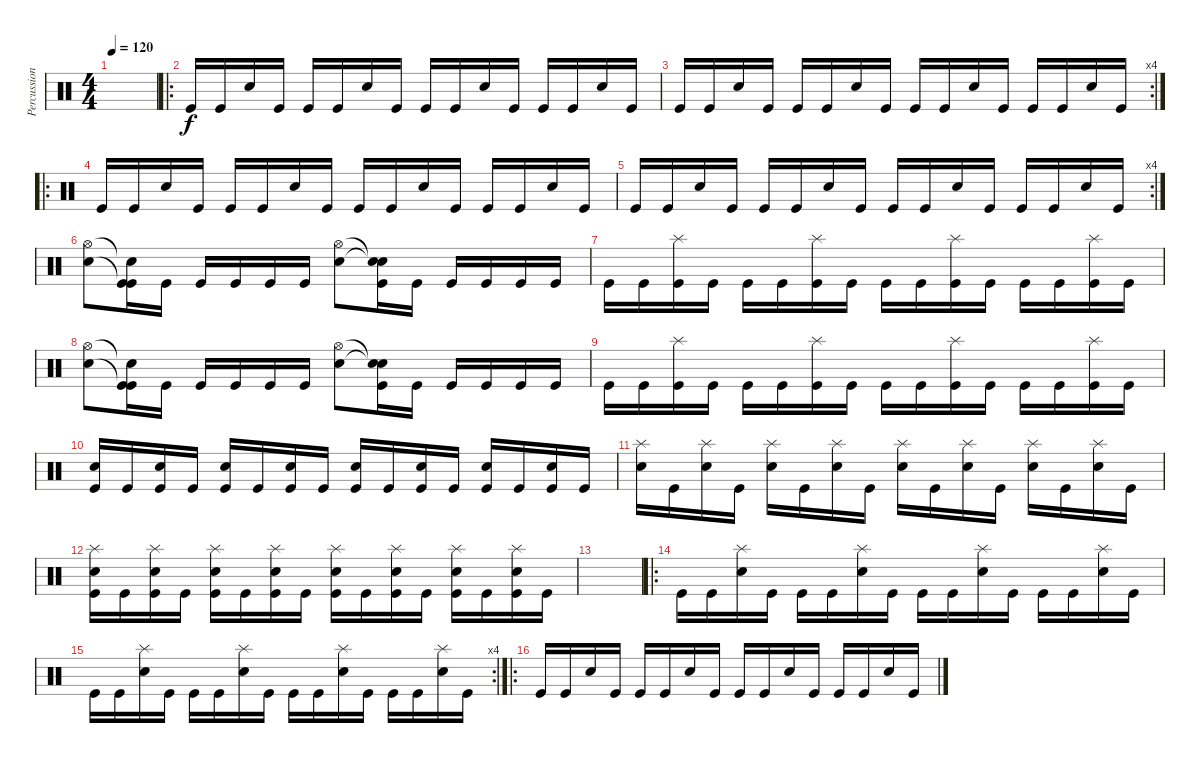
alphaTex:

\track ("Percussion" "Percussion") {instrument percussion}
\staff {score}
\articulation defaults
\ts (4 4)
\tempo 120
\clef neutral
\ks c
|
\ro "Kick (hit)".16 "Kick (hit)".16 "Electric Snare (hit)".16 "Kick (hit)".16 "Kick (hit)".16 "Kick (hit)".16 "Electric Snare (hit)".16 "Kick (hit)".16 "Kick (hit)".16 "Kick (hit)".16 "Electric Snare (hit)".16 "Kick (hit)".16 "Kick (hit)".16 "Kick (hit)".16 "Electric Snare (hit)".16 "Kick (hit)".16
|
\rc 4 "Kick (hit)".16 "Kick (hit)".16 "Electric Snare (hit)".16 "Kick (hit)".16 "Kick (hit)".16 "Kick (hit)".16 "Electric Snare (hit)".16 "Kick (hit)".16 "Kick (hit)".16 "Kick (hit)".16 "Electric Snare (hit)".16 "Kick (hit)".16 "Kick (hit)".16 "Kick (hit)".16 "Electric Snare (hit)".16 "Kick (hit)".16
|
\ro "Kick (hit)".16 "Kick (hit)".16 "Electric Snare (hit)".16 "Kick (hit)".16 "Kick (hit)".16 "Kick (hit)".16 "Electric Snare (hit)".16 "Kick (hit)".16 "Kick (hit)".16 "Kick (hit)".16 "Electric Snare (hit)".16 "Kick (hit)".16 "Kick (hit)".16 "Kick (hit)".16 "Electric Snare (hit)".16 "Kick (hit)".16
|
\rc 4 "Kick (hit)".16 "Kick (hit)".16 "Electric Snare (hit)".16 "Kick (hit)".16 "Kick (hit)".16 "Kick (hit)".16 "Electric Snare (hit)".16 "Kick (hit)".16 "Kick (hit)".16 "Kick (hit)".16 "Electric Snare (hit)".16 "Kick (hit)".16 "Kick (hit)".16 "Kick (hit)".16 "Electric Snare (hit)".16 "Kick (hit)".16
|
("Hi-Hat (open)" "Electric Snare (hit)").8 ("Snare (hit)"{t} "Kick (hit)"{t} "Kick (hit)").16 "Kick (hit)".16 "Kick (hit)".16 "Kick (hit)".16 "Kick (hit)".16 "Kick (hit)".16 ("Hi-Hat (open)" "Electric Snare (hit)").8 ("Snare (hit)"{t} "Snare (hit)"{t} "Kick (hit)").16 "Kick (hit)".16 "Kick (hit)".16 "Kick (hit)".16 "Kick (hit)".16 "Kick (hit)".16 |
"Kick (hit)".16 "Kick (hit)".16 ("Splash (hit)" "Kick (hit)").16 "Kick (hit)".16 "Kick (hit)".16 "Kick (hit)".16 ("Splash (hit)" "Kick (hit)").16 "Kick (hit)".16 "Kick (hit)".16 "Kick (hit)".16 ("Splash (hit)" "Kick (hit)").16 "Kick (hit)".16 "Kick (hit)".16 "Kick (hit)".16 ("Splash (hit)" "Kick (hit)").16 "Kick (hit)".16 |
("Hi-Hat (open)" "Electric Snare (hit)").8 ("Snare (hit)"{t} "Kick (hit)"{t} "Kick (hit)").16 "Kick (hit)".16 "Kick (hit)".16 "Kick (hit)".16 "Kick (hit)".16 "Kick (hit)".16 ("Hi-Hat (open)" "Electric Snare (hit)").8 ("Snare (hit)"{t} "Snare (hit)"{t} "Kick (hit)").16 "Kick (hit)".16 "Kick (hit)".16 "Kick (hit)".16 "Kick (hit)".16 "Kick (hit)".16 |
"Kick (hit)".16 "Kick (hit)".16 ("Splash (hit)" "Kick (hit)").16 "Kick (hit)".16 "Kick (hit)".16 "Kick (hit)".16 ("Splash (hit)" "Kick (hit)").16 "Kick (hit)".16 "Kick (hit)".16 "Kick (hit)".16 ("Splash (hit)" "Kick (hit)").16 "Kick (hit)".16 "Kick (hit)".16 "Kick (hit)".16 ("Splash (hit)" "Kick (hit)").16 "Kick (hit)".16 |
("Electric Snare (hit)" "Kick (hit)").16 "Kick (hit)".16 ("Electric Snare (hit)" "Kick (hit)").16 "Kick (hit)".16 ("Electric Snare (hit)" "Kick (hit)").16 "Kick (hit)".16 ("Electric Snare (hit)" "Kick (hit)").16 "Kick (hit)".16 ("Electric Snare (hit)" "Kick (hit)").16 "Kick (hit)".16 ("Electric Snare (hit)" "Kick (hit)").16 "Kick (hit)".16 ("Electric Snare (hit)" "Kick (hit)").16 "Kick (hit)".16 ("Electric Snare (hit)" "Kick (hit)").16 "Kick (hit)".16 |
("Splash (hit)" "Electric Snare (hit)").16 "Kick (hit)".16 ("Splash (hit)" "Electric Snare (hit)").16 "Kick (hit)".16 ("Splash (hit)" "Electric Snare (hit)").16 "Kick (hit)".16 ("Splash (hit)" "Electric Snare (hit)").16 "Kick (hit)".16 ("Splash (hit)" "Electric Snare (hit)").16 "Kick (hit)".16 ("Splash (hit)" "Electric Snare (hit)").16 "Kick (hit)".16 ("Splash (hit)" "Electric Snare (hit)").16 "Kick (hit)".16 ("Splash (hit)" "Electric Snare (hit)").16 "Kick (hit)".16 |
("Splash (hit)" "Electric Snare (hit)" "Kick (hit)").16 "Kick (hit)".16 ("Splash (hit)" "Electric Snare (hit)" "Kick (hit)").16 "Kick (hit)".16 ("Splash (hit)" "Electric Snare (hit)" "Kick (hit)").16 "Kick (hit)".16 ("Splash (hit)" "Electric Snare (hit)" "Kick (hit)").16 "Kick (hit)".16 ("Splash (hit)" "Electric Snare (hit)" "Kick (hit)").16 "Kick (hit)".16 ("Splash (hit)" "Electric Snare (hit)" "Kick (hit)").16 "Kick (hit)".16 ("Splash (hit)" "Electric Snare (hit)" "Kick (hit)").16 "Kick (hit)".16 ("Splash (hit)" "Electric Snare (hit)" "Kick (hit)").16 "Kick (hit)".16 |
|
\ro "Kick (hit)".16 "Kick (hit)".16
("Splash (hit)" "Electric Snare (hit)").16 "Kick (hit)".16 "Kick (hit)".16 "Kick (hit)".16 ("Splash (hit)" "Electric Snare (hit)").16 "Kick (hit)".16 "Kick (hit)".16 "Kick (hit)".16 ("Splash (hit)" "Electric Snare (hit)").16 "Kick (hit)".16 "Kick (hit)".16 "Kick (hit)".16 ("Splash (hit)" "Electric Snare (hit)").16 "Kick (hit)".16 |
\rc 4 "Kick (hit)".16 "Kick (hit)".16
("Splash (hit)" "Electric Snare (hit)").16 "Kick (hit)".16 "Kick (hit)".16 "Kick (hit)".16 ("Splash (hit)" "Electric Snare (hit)").16 "Kick (hit)".16 "Kick (hit)".16 "Kick (hit)".16 ("Splash (hit)" "Electric Snare (hit)").16 "Kick (hit)".16 "Kick (hit)".16 "Kick (hit)".16 ("Splash (hit)" "Electric Snare (hit)").16 "Kick (hit)".16 |
\ro "Kick (hit)".16 "Kick (hit)".16 "Electric Snare (hit)".16 "Kick (hit)".16 "Kick (hit)".16 "Kick (hit)".16 "Electric Snare (hit)".16 "Kick (hit)".16 "Kick (hit)".16 "Kick (hit)".16 "Electric Snare (hit)".16 "Kick (hit)".16 "Kick (hit)".16 "Kick (hit)".16 "Electric Snare (hit)".16 "Kick (hit)".16
